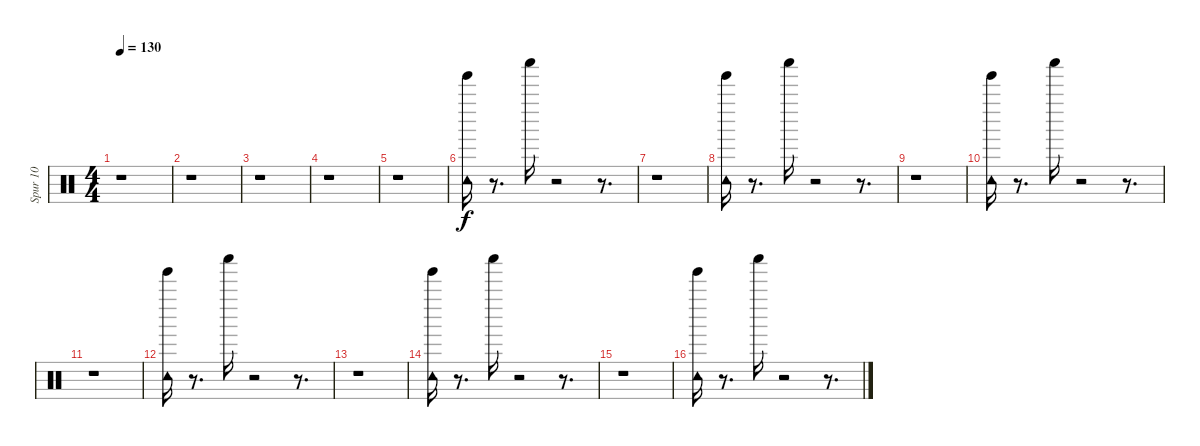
\track ("Spur 10" "Spur 10") {instrument percussion}
\staff {score}
\articulation defaults
\ts (4 4)
\tempo 130
\clef neutral
\ks c
r.1{dy f} |
r.1 |
r.1 |
r.1 |
r.1 |
("Tambourine (hit)" "Tinkle Bell (hit)").16 r.8{d} "Shaker (hit)".16 r.2 r.8{d} |
r.1 |
("Tambourine (hit)" "Tinkle Bell (hit)").16 r.8{d} "Shaker (hit)".16 r.2 r.8{d} |
r.1 |
("Tambourine (hit)" "Tinkle Bell (hit)").16 r.8{d} "Shaker (hit)".16 r.2 r.8{d} |
r.1 |
("Tambourine (hit)" "Tinkle Bell (hit)").16 r.8{d} "Shaker (hit)".16 r.2 r.8{d} |
r.1 |
("Tambourine (hit)" "Tinkle Bell (hit)").16 r.8{d} "Shaker (hit)".16 r.2 r.8{d} |
r.1 |
("Tambourine (hit)" "Tinkle Bell (hit)").16 r.8{d} "Shaker (hit)".16 r.2 r.8{d}
